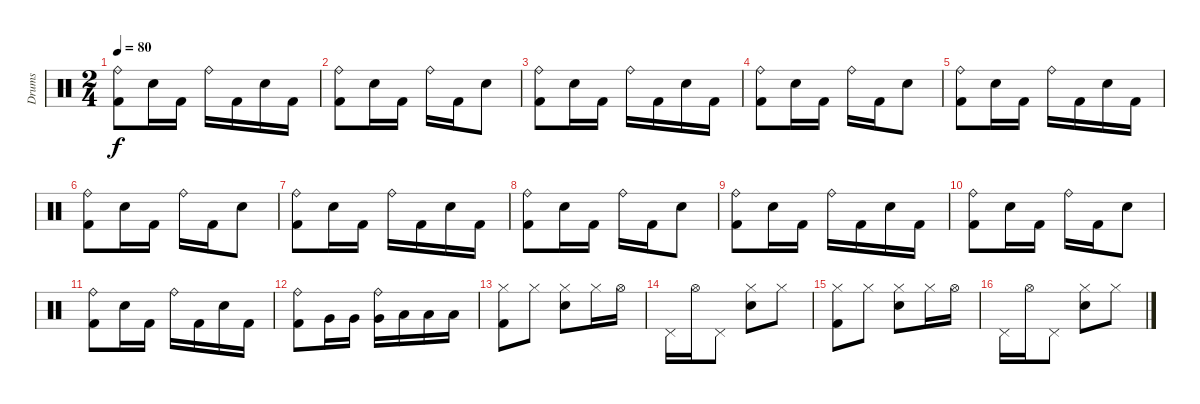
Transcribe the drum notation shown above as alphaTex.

\track ("Drums" "Drums") {instrument percussion}
\staff {score}
\articulation defaults
\ts (2 4)
\tempo 80
\clef neutral
\ks aminor
("Kick (hit) 2" "Ride (bell)").8{dy f} "Electric Snare (hit)".16 "Kick (hit) 2".16 "Ride (bell)".16 "Kick (hit) 2".16 "Electric Snare (hit)".16 "Kick (hit) 2".16 |
("Kick (hit) 2" "Ride (bell)").8 "Electric Snare (hit)".16 "Kick (hit) 2".16 "Ride (bell)".16 "Kick (hit) 2".16 "Electric Snare (hit)".8 |
("Kick (hit) 2" "Ride (bell)").8 "Electric Snare (hit)".16 "Kick (hit) 2".16 "Ride (bell)".16 "Kick (hit) 2".16 "Electric Snare (hit)".16 "Kick (hit) 2".16 |
("Kick (hit) 2" "Ride (bell)").8 "Electric Snare (hit)".16 "Kick (hit) 2".16 "Ride (bell)".16 "Kick (hit) 2".16 "Electric Snare (hit)".8 |
("Kick (hit) 2" "Ride (bell)").8 "Electric Snare (hit)".16 "Kick (hit) 2".16 "Ride (bell)".16 "Kick (hit) 2".16 "Electric Snare (hit)".16 "Kick (hit) 2".16 |
("Kick (hit) 2" "Ride (bell)").8 "Electric Snare (hit)".16 "Kick (hit) 2".16 "Ride (bell)".16 "Kick (hit) 2".16 "Electric Snare (hit)".8 |
("Kick (hit) 2" "Ride (bell)").8 "Electric Snare (hit)".16 "Kick (hit) 2".16 "Ride (bell)".16 "Kick (hit) 2".16 "Electric Snare (hit)".16 "Kick (hit) 2".16 |
("Kick (hit) 2" "Ride (bell)").8 "Electric Snare (hit)".16 "Kick (hit) 2".16 "Ride (bell)".16 "Kick (hit) 2".16 "Electric Snare (hit)".8 |
("Kick (hit) 2" "Ride (bell)").8 "Electric Snare (hit)".16 "Kick (hit) 2".16 "Ride (bell)".16 "Kick (hit) 2".16 "Electric Snare (hit)".16 "Kick (hit) 2".16 |
("Kick (hit) 2" "Ride (bell)").8 "Electric Snare (hit)".16 "Kick (hit) 2".16 "Ride (bell)".16 "Kick (hit) 2".16 "Electric Snare (hit)".8 |
("Kick (hit) 2" "Ride (bell)").8 "Electric Snare (hit)".16 "Kick (hit) 2".16 "Ride (bell)".16 "Kick (hit) 2".16 "Electric Snare (hit)".16 "Kick (hit) 2".16 |
("Kick (hit) 2" "Ride (bell)").8 "Very Low Tom (hit)".16 "Very Low Tom (hit)".16 ("Very Low Tom (hit)" "Ride (bell)").16 "Low Tom (hit)".16 "Low Tom (hit)".16 "Low Tom (hit)".16 |
("Kick (hit) 2" "Hi-Hat (closed)").8 "Hi-Hat (closed)".8 ("Electric Snare (hit)" "Hi-Hat (closed)").8 "Hi-Hat (closed)".16 "Hi-Hat (open)".16 |
"Pedal Hi-Hat (hit)".16 "Hi-Hat (open)".16 "Pedal Hi-Hat (hit)".8 ("Electric Snare (hit)" "Hi-Hat (closed)").8 "Hi-Hat (closed)".8 |
("Kick (hit) 2" "Hi-Hat (closed)").8 "Hi-Hat (closed)".8 ("Electric Snare (hit)" "Hi-Hat (closed)").8 "Hi-Hat (closed)".16 "Hi-Hat (open)".16 |
"Pedal Hi-Hat (hit)".16 "Hi-Hat (open)".16 "Pedal Hi-Hat (hit)".8 ("Electric Snare (hit)" "Hi-Hat (closed)").8 "Hi-Hat (closed)".8
